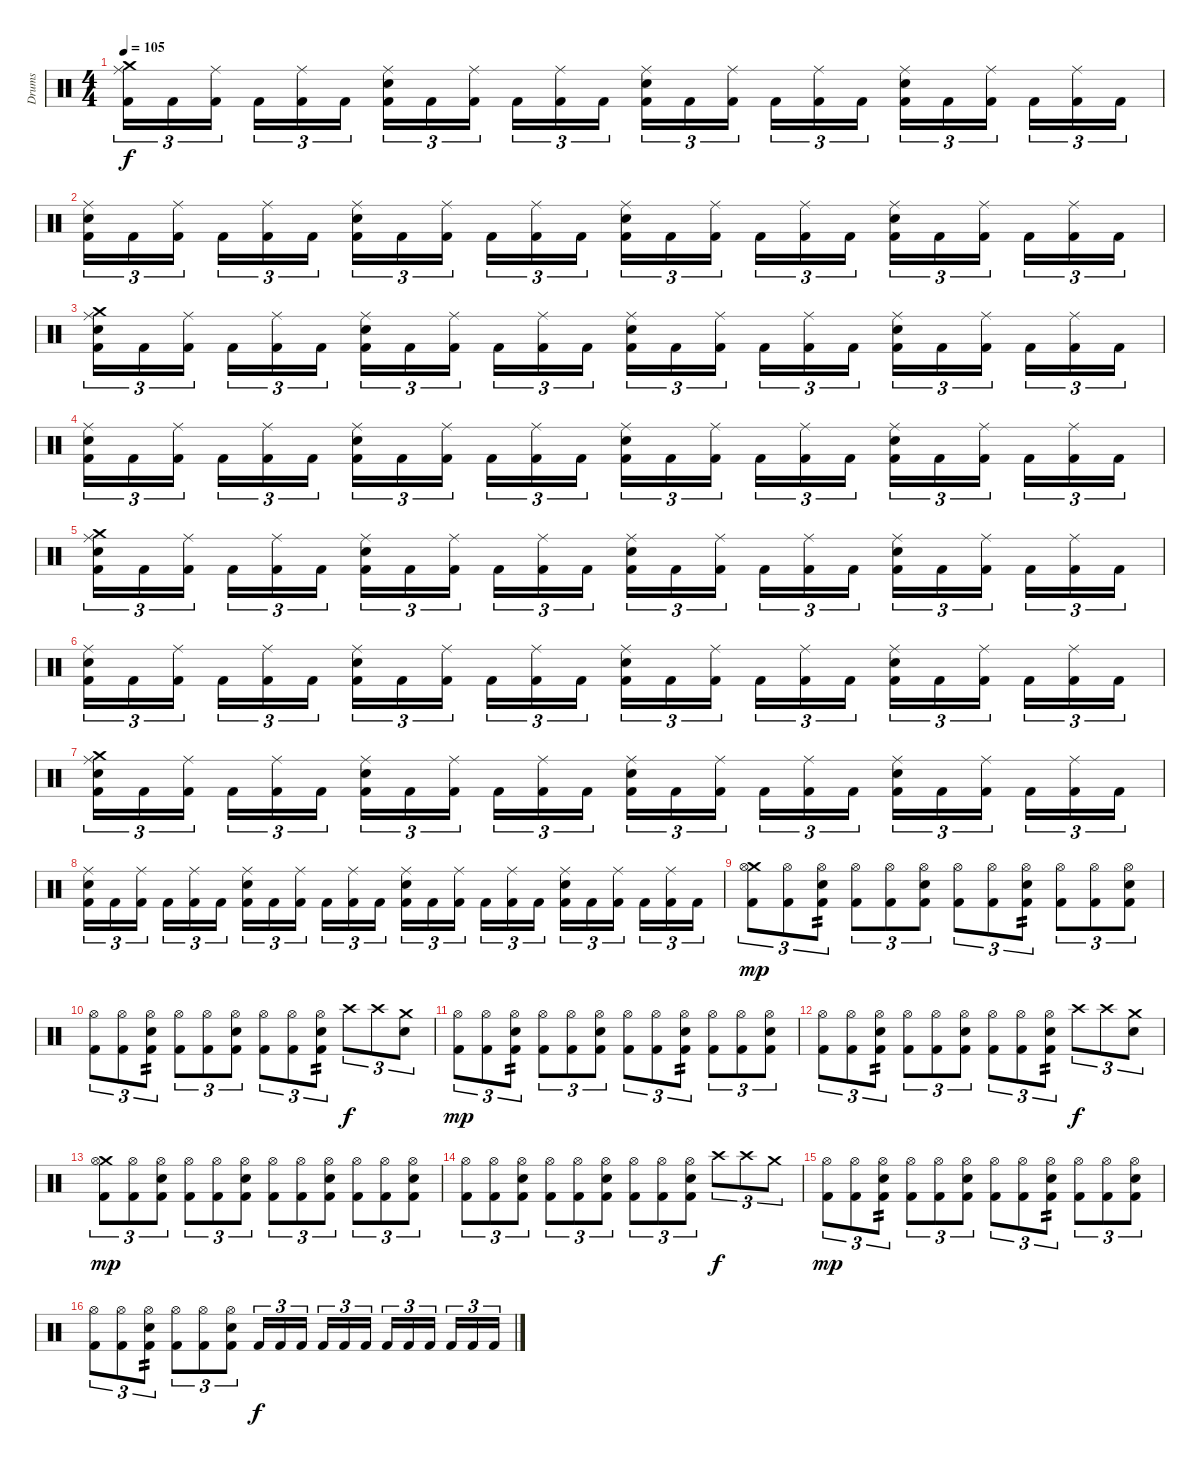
\track ("Drums" "Drums") {instrument percussion}
\staff {score}
\articulation defaults
\ts (4 4)
\tempo 105
\clef neutral
\ks c
("Crash medium (hit)" "Ride (middle)" "Kick (hit) 2").16{tu (3 2) dy f} "Kick (hit) 2".16{tu (3 2)} ("Ride (middle)" "Kick (hit) 2").16{tu (3 2)} "Kick (hit) 2".16{tu (3 2)} ("Ride (middle)" "Kick (hit) 2").16{tu (3 2)} "Kick (hit) 2".16{tu (3 2)} ("Ride (middle)" "Electric Snare (hit)" "Kick (hit) 2").16{tu (3 2)} "Kick (hit) 2".16{tu (3 2)} ("Ride (middle)" "Kick (hit) 2").16{tu (3 2)} "Kick (hit) 2".16{tu (3 2)} ("Ride (middle)" "Kick (hit) 2").16{tu (3 2)} "Kick (hit) 2".16{tu (3 2)} ("Ride (middle)" "Electric Snare (hit)" "Kick (hit) 2").16{tu (3 2)} "Kick (hit) 2".16{tu (3 2)} ("Ride (middle)" "Kick (hit) 2").16{tu (3 2)} "Kick (hit) 2".16{tu (3 2)} ("Ride (middle)" "Kick (hit) 2").16{tu (3 2)} "Kick (hit) 2".16{tu (3 2)} ("Ride (middle)" "Electric Snare (hit)" "Kick (hit) 2").16{tu (3 2)} "Kick (hit) 2".16{tu (3 2)} ("Ride (middle)" "Kick (hit) 2").16{tu (3 2)} "Kick (hit) 2".16{tu (3 2)} ("Ride (middle)" "Kick (hit) 2").16{tu (3 2)} "Kick (hit) 2".16{tu (3 2)} |
("Ride (middle)" "Electric Snare (hit)" "Kick (hit) 2").16{tu (3 2)} "Kick (hit) 2".16{tu (3 2)} ("Ride (middle)" "Kick (hit) 2").16{tu (3 2)} "Kick (hit) 2".16{tu (3 2)} ("Ride (middle)" "Kick (hit) 2").16{tu (3 2)} "Kick (hit) 2".16{tu (3 2)} ("Ride (middle)" "Electric Snare (hit)" "Kick (hit) 2").16{tu (3 2)} "Kick (hit) 2".16{tu (3 2)} ("Ride (middle)" "Kick (hit) 2").16{tu (3 2)} "Kick (hit) 2".16{tu (3 2)} ("Ride (middle)" "Kick (hit) 2").16{tu (3 2)} "Kick (hit) 2".16{tu (3 2)} ("Ride (middle)" "Electric Snare (hit)" "Kick (hit) 2").16{tu (3 2)} "Kick (hit) 2".16{tu (3 2)} ("Ride (middle)" "Kick (hit) 2").16{tu (3 2)} "Kick (hit) 2".16{tu (3 2)} ("Ride (middle)" "Kick (hit) 2").16{tu (3 2)} "Kick (hit) 2".16{tu (3 2)} ("Ride (middle)" "Electric Snare (hit)" "Kick (hit) 2").16{tu (3 2)} "Kick (hit) 2".16{tu (3 2)} ("Ride (middle)" "Kick (hit) 2").16{tu (3 2)} "Kick (hit) 2".16{tu (3 2)} ("Ride (middle)" "Kick (hit) 2").16{tu (3 2)} "Kick (hit) 2".16{tu (3 2)} |
("Crash medium (hit)" "Ride (middle)" "Electric Snare (hit)" "Kick (hit) 2").16{tu (3 2)} "Kick (hit) 2".16{tu (3 2)} ("Ride (middle)" "Kick (hit) 2").16{tu (3 2)} "Kick (hit) 2".16{tu (3 2)} ("Ride (middle)" "Kick (hit) 2").16{tu (3 2)} "Kick (hit) 2".16{tu (3 2)} ("Ride (middle)" "Electric Snare (hit)" "Kick (hit) 2").16{tu (3 2)} "Kick (hit) 2".16{tu (3 2)} ("Ride (middle)" "Kick (hit) 2").16{tu (3 2)} "Kick (hit) 2".16{tu (3 2)} ("Ride (middle)" "Kick (hit) 2").16{tu (3 2)} "Kick (hit) 2".16{tu (3 2)} ("Ride (middle)" "Electric Snare (hit)" "Kick (hit) 2").16{tu (3 2)} "Kick (hit) 2".16{tu (3 2)} ("Ride (middle)" "Kick (hit) 2").16{tu (3 2)} "Kick (hit) 2".16{tu (3 2)} ("Ride (middle)" "Kick (hit) 2").16{tu (3 2)} "Kick (hit) 2".16{tu (3 2)} ("Ride (middle)" "Electric Snare (hit)" "Kick (hit) 2").16{tu (3 2)} "Kick (hit) 2".16{tu (3 2)} ("Ride (middle)" "Kick (hit) 2").16{tu (3 2)} "Kick (hit) 2".16{tu (3 2)} ("Ride (middle)" "Kick (hit) 2").16{tu (3 2)} "Kick (hit) 2".16{tu (3 2)} |
("Ride (middle)" "Electric Snare (hit)" "Kick (hit) 2").16{tu (3 2)} "Kick (hit) 2".16{tu (3 2)} ("Ride (middle)" "Kick (hit) 2").16{tu (3 2)} "Kick (hit) 2".16{tu (3 2)} ("Ride (middle)" "Kick (hit) 2").16{tu (3 2)} "Kick (hit) 2".16{tu (3 2)} ("Ride (middle)" "Electric Snare (hit)" "Kick (hit) 2").16{tu (3 2)} "Kick (hit) 2".16{tu (3 2)} ("Ride (middle)" "Kick (hit) 2").16{tu (3 2)} "Kick (hit) 2".16{tu (3 2)} ("Ride (middle)" "Kick (hit) 2").16{tu (3 2)} "Kick (hit) 2".16{tu (3 2)} ("Ride (middle)" "Electric Snare (hit)" "Kick (hit) 2").16{tu (3 2)} "Kick (hit) 2".16{tu (3 2)} ("Ride (middle)" "Kick (hit) 2").16{tu (3 2)} "Kick (hit) 2".16{tu (3 2)} ("Ride (middle)" "Kick (hit) 2").16{tu (3 2)} "Kick (hit) 2".16{tu (3 2)} ("Ride (middle)" "Electric Snare (hit)" "Kick (hit) 2").16{tu (3 2)} "Kick (hit) 2".16{tu (3 2)} ("Ride (middle)" "Kick (hit) 2").16{tu (3 2)} "Kick (hit) 2".16{tu (3 2)} ("Ride (middle)" "Kick (hit) 2").16{tu (3 2)} "Kick (hit) 2".16{tu (3 2)} |
("Crash medium (hit)" "Ride (middle)" "Electric Snare (hit)" "Kick (hit) 2").16{tu (3 2)} "Kick (hit) 2".16{tu (3 2)} ("Ride (middle)" "Kick (hit) 2").16{tu (3 2)} "Kick (hit) 2".16{tu (3 2)} ("Ride (middle)" "Kick (hit) 2").16{tu (3 2)} "Kick (hit) 2".16{tu (3 2)} ("Ride (middle)" "Electric Snare (hit)" "Kick (hit) 2").16{tu (3 2)} "Kick (hit) 2".16{tu (3 2)} ("Ride (middle)" "Kick (hit) 2").16{tu (3 2)} "Kick (hit) 2".16{tu (3 2)} ("Ride (middle)" "Kick (hit) 2").16{tu (3 2)} "Kick (hit) 2".16{tu (3 2)} ("Ride (middle)" "Electric Snare (hit)" "Kick (hit) 2").16{tu (3 2)} "Kick (hit) 2".16{tu (3 2)} ("Ride (middle)" "Kick (hit) 2").16{tu (3 2)} "Kick (hit) 2".16{tu (3 2)} ("Ride (middle)" "Kick (hit) 2").16{tu (3 2)} "Kick (hit) 2".16{tu (3 2)} ("Ride (middle)" "Electric Snare (hit)" "Kick (hit) 2").16{tu (3 2)} "Kick (hit) 2".16{tu (3 2)} ("Ride (middle)" "Kick (hit) 2").16{tu (3 2)} "Kick (hit) 2".16{tu (3 2)} ("Ride (middle)" "Kick (hit) 2").16{tu (3 2)} "Kick (hit) 2".16{tu (3 2)} |
("Ride (middle)" "Electric Snare (hit)" "Kick (hit) 2").16{tu (3 2)} "Kick (hit) 2".16{tu (3 2)} ("Ride (middle)" "Kick (hit) 2").16{tu (3 2)} "Kick (hit) 2".16{tu (3 2)} ("Ride (middle)" "Kick (hit) 2").16{tu (3 2)} "Kick (hit) 2".16{tu (3 2)} ("Ride (middle)" "Electric Snare (hit)" "Kick (hit) 2").16{tu (3 2)} "Kick (hit) 2".16{tu (3 2)} ("Ride (middle)" "Kick (hit) 2").16{tu (3 2)} "Kick (hit) 2".16{tu (3 2)} ("Ride (middle)" "Kick (hit) 2").16{tu (3 2)} "Kick (hit) 2".16{tu (3 2)} ("Ride (middle)" "Electric Snare (hit)" "Kick (hit) 2").16{tu (3 2)} "Kick (hit) 2".16{tu (3 2)} ("Ride (middle)" "Kick (hit) 2").16{tu (3 2)} "Kick (hit) 2".16{tu (3 2)} ("Ride (middle)" "Kick (hit) 2").16{tu (3 2)} "Kick (hit) 2".16{tu (3 2)} ("Ride (middle)" "Electric Snare (hit)" "Kick (hit) 2").16{tu (3 2)} "Kick (hit) 2".16{tu (3 2)} ("Ride (middle)" "Kick (hit) 2").16{tu (3 2)} "Kick (hit) 2".16{tu (3 2)} ("Ride (middle)" "Kick (hit) 2").16{tu (3 2)} "Kick (hit) 2".16{tu (3 2)} |
("Crash medium (hit)" "Ride (middle)" "Electric Snare (hit)" "Kick (hit) 2").16{tu (3 2)} "Kick (hit) 2".16{tu (3 2)} ("Ride (middle)" "Kick (hit) 2").16{tu (3 2)} "Kick (hit) 2".16{tu (3 2)} ("Ride (middle)" "Kick (hit) 2").16{tu (3 2)} "Kick (hit) 2".16{tu (3 2)} ("Ride (middle)" "Electric Snare (hit)" "Kick (hit) 2").16{tu (3 2)} "Kick (hit) 2".16{tu (3 2)} ("Ride (middle)" "Kick (hit) 2").16{tu (3 2)} "Kick (hit) 2".16{tu (3 2)} ("Ride (middle)" "Kick (hit) 2").16{tu (3 2)} "Kick (hit) 2".16{tu (3 2)} ("Ride (middle)" "Electric Snare (hit)" "Kick (hit) 2").16{tu (3 2)} "Kick (hit) 2".16{tu (3 2)} ("Ride (middle)" "Kick (hit) 2").16{tu (3 2)} "Kick (hit) 2".16{tu (3 2)} ("Ride (middle)" "Kick (hit) 2").16{tu (3 2)} "Kick (hit) 2".16{tu (3 2)} ("Ride (middle)" "Electric Snare (hit)" "Kick (hit) 2").16{tu (3 2)} "Kick (hit) 2".16{tu (3 2)} ("Ride (middle)" "Kick (hit) 2").16{tu (3 2)} "Kick (hit) 2".16{tu (3 2)} ("Ride (middle)" "Kick (hit) 2").16{tu (3 2)} "Kick (hit) 2".16{tu (3 2)} |
("Ride (middle)" "Electric Snare (hit)" "Kick (hit) 2").16{tu (3 2)} "Kick (hit) 2".16{tu (3 2)} ("Ride (middle)" "Kick (hit) 2").16{tu (3 2)} "Kick (hit) 2".16{tu (3 2)} ("Ride (middle)" "Kick (hit) 2").16{tu (3 2)} "Kick (hit) 2".16{tu (3 2)} ("Ride (middle)" "Electric Snare (hit)" "Kick (hit) 2").16{tu (3 2)} "Kick (hit) 2".16{tu (3 2)} ("Ride (middle)" "Kick (hit) 2").16{tu (3 2)} "Kick (hit) 2".16{tu (3 2)} ("Ride (middle)" "Kick (hit) 2").16{tu (3 2)} "Kick (hit) 2".16{tu (3 2)} ("Ride (middle)" "Electric Snare (hit)" "Kick (hit) 2").16{tu (3 2)} "Kick (hit) 2".16{tu (3 2)} ("Ride (middle)" "Kick (hit) 2").16{tu (3 2)} "Kick (hit) 2".16{tu (3 2)} ("Ride (middle)" "Kick (hit) 2").16{tu (3 2)} "Kick (hit) 2".16{tu (3 2)} ("Ride (middle)" "Electric Snare (hit)" "Kick (hit) 2").16{tu (3 2)} "Kick (hit) 2".16{tu (3 2)} ("Ride (middle)" "Kick (hit) 2").16{tu (3 2)} "Kick (hit) 2".16{tu (3 2)} ("Ride (middle)" "Kick (hit) 2").16{tu (3 2)} "Kick (hit) 2".16{tu (3 2)} |
("Crash medium (hit)" "Hi-Hat (open)" "Kick (hit) 2").8{tu (3 2) dy mp} ("Hi-Hat (open)" "Kick (hit) 2").8{tu (3 2)} ("Hi-Hat (open)" "Electric Snare (hit)" "Kick (hit) 2").8{tu (3 2) tp 2} ("Hi-Hat (open)" "Kick (hit) 2").8{tu (3 2)} ("Hi-Hat (open)" "Kick (hit) 2").8{tu (3 2)} ("Hi-Hat (open)" "Electric Snare (hit)" "Kick (hit) 2").8{tu (3 2)} ("Hi-Hat (open)" "Kick (hit) 2").8{tu (3 2)} ("Hi-Hat (open)" "Kick (hit) 2").8{tu (3 2)} ("Hi-Hat (open)" "Electric Snare (hit)" "Kick (hit) 2").8{tu (3 2) tp 2} ("Hi-Hat (open)" "Kick (hit) 2").8{tu (3 2)} ("Hi-Hat (open)" "Kick (hit) 2").8{tu (3 2)} ("Hi-Hat (open)" "Electric Snare (hit)" "Kick (hit) 2").8{tu (3 2)} |
("Hi-Hat (open)" "Kick (hit) 2").8{tu (3 2)} ("Hi-Hat (open)" "Kick (hit) 2").8{tu (3 2)} ("Hi-Hat (open)" "Electric Snare (hit)" "Kick (hit) 2").8{tu (3 2) tp 2} ("Hi-Hat (open)" "Kick (hit) 2").8{tu (3 2)} ("Hi-Hat (open)" "Kick (hit) 2").8{tu (3 2)} ("Hi-Hat (open)" "Electric Snare (hit)" "Kick (hit) 2").8{tu (3 2)} ("Hi-Hat (open)" "Kick (hit) 2").8{tu (3 2)} ("Hi-Hat (open)" "Kick (hit) 2").8{tu (3 2)} ("Hi-Hat (open)" "Electric Snare (hit)" "Kick (hit) 2").8{tu (3 2) tp 2} "Crash high (hit)".8{tu (3 2) dy f} "Crash high (hit)".8{tu (3 2)} ("Crash medium (hit)" "Electric Snare (hit)").8{tu (3 2)} |
("Hi-Hat (open)" "Kick (hit) 2").8{tu (3 2) dy mp} ("Hi-Hat (open)" "Kick (hit) 2").8{tu (3 2)} ("Hi-Hat (open)" "Electric Snare (hit)" "Kick (hit) 2").8{tu (3 2) tp 2} ("Hi-Hat (open)" "Kick (hit) 2").8{tu (3 2)} ("Hi-Hat (open)" "Kick (hit) 2").8{tu (3 2)} ("Hi-Hat (open)" "Electric Snare (hit)" "Kick (hit) 2").8{tu (3 2)} ("Hi-Hat (open)" "Kick (hit) 2").8{tu (3 2)} ("Hi-Hat (open)" "Kick (hit) 2").8{tu (3 2)} ("Hi-Hat (open)" "Electric Snare (hit)" "Kick (hit) 2").8{tu (3 2) tp 2} ("Hi-Hat (open)" "Kick (hit) 2").8{tu (3 2)} ("Hi-Hat (open)" "Kick (hit) 2").8{tu (3 2)} ("Hi-Hat (open)" "Electric Snare (hit)" "Kick (hit) 2").8{tu (3 2)} |
("Hi-Hat (open)" "Kick (hit) 2").8{tu (3 2)} ("Hi-Hat (open)" "Kick (hit) 2").8{tu (3 2)} ("Hi-Hat (open)" "Electric Snare (hit)" "Kick (hit) 2").8{tu (3 2) tp 2} ("Hi-Hat (open)" "Kick (hit) 2").8{tu (3 2)} ("Hi-Hat (open)" "Kick (hit) 2").8{tu (3 2)} ("Hi-Hat (open)" "Electric Snare (hit)" "Kick (hit) 2").8{tu (3 2)} ("Hi-Hat (open)" "Kick (hit) 2").8{tu (3 2)} ("Hi-Hat (open)" "Kick (hit) 2").8{tu (3 2)} ("Hi-Hat (open)" "Electric Snare (hit)" "Kick (hit) 2").8{tu (3 2) tp 2} "Crash high (hit)".8{tu (3 2) dy f} "Crash high (hit)".8{tu (3 2)} ("Crash medium (hit)" "Electric Snare (hit)").8{tu (3 2)} |
("Crash medium (hit)" "Hi-Hat (open)" "Kick (hit) 2").8{tu (3 2) dy mp} ("Hi-Hat (open)" "Kick (hit) 2").8{tu (3 2)} ("Hi-Hat (open)" "Electric Snare (hit)" "Kick (hit) 2").8{tu (3 2)} ("Hi-Hat (open)" "Kick (hit) 2").8{tu (3 2)} ("Hi-Hat (open)" "Kick (hit) 2").8{tu (3 2)} ("Hi-Hat (open)" "Electric Snare (hit)" "Kick (hit) 2").8{tu (3 2)} ("Hi-Hat (open)" "Kick (hit) 2").8{tu (3 2)} ("Hi-Hat (open)" "Kick (hit) 2").8{tu (3 2)} ("Hi-Hat (open)" "Electric Snare (hit)" "Kick (hit) 2").8{tu (3 2)} ("Hi-Hat (open)" "Kick (hit) 2").8{tu (3 2)} ("Hi-Hat (open)" "Kick (hit) 2").8{tu (3 2)} ("Hi-Hat (open)" "Electric Snare (hit)" "Kick (hit) 2").8{tu (3 2)} |
("Hi-Hat (open)" "Kick (hit) 2").8{tu (3 2)} ("Hi-Hat (open)" "Kick (hit) 2").8{tu (3 2)} ("Hi-Hat (open)" "Electric Snare (hit)" "Kick (hit) 2").8{tu (3 2)} ("Hi-Hat (open)" "Kick (hit) 2").8{tu (3 2)} ("Hi-Hat (open)" "Kick (hit) 2").8{tu (3 2)} ("Hi-Hat (open)" "Electric Snare (hit)" "Kick (hit) 2").8{tu (3 2)} ("Hi-Hat (open)" "Kick (hit) 2").8{tu (3 2)} ("Hi-Hat (open)" "Kick (hit) 2").8{tu (3 2)} ("Hi-Hat (open)" "Electric Snare (hit)" "Kick (hit) 2").8{tu (3 2)} "Crash high (hit)".8{tu (3 2) dy f} "Crash high (hit)".8{tu (3 2)} "Crash medium (hit)".8{tu (3 2)} |
("Hi-Hat (open)" "Kick (hit) 2").8{tu (3 2) dy mp} ("Hi-Hat (open)" "Kick (hit) 2").8{tu (3 2)} ("Hi-Hat (open)" "Electric Snare (hit)" "Kick (hit) 2").8{tu (3 2) tp 2} ("Hi-Hat (open)" "Kick (hit) 2").8{tu (3 2)} ("Hi-Hat (open)" "Kick (hit) 2").8{tu (3 2)} ("Hi-Hat (open)" "Electric Snare (hit)" "Kick (hit) 2").8{tu (3 2)} ("Hi-Hat (open)" "Kick (hit) 2").8{tu (3 2)} ("Hi-Hat (open)" "Kick (hit) 2").8{tu (3 2)} ("Hi-Hat (open)" "Electric Snare (hit)" "Kick (hit) 2").8{tu (3 2) tp 2} ("Hi-Hat (open)" "Kick (hit) 2").8{tu (3 2)} ("Hi-Hat (open)" "Kick (hit) 2").8{tu (3 2)} ("Hi-Hat (open)" "Electric Snare (hit)" "Kick (hit) 2").8{tu (3 2)} |
("Hi-Hat (open)" "Kick (hit) 2").8{tu (3 2)} ("Hi-Hat (open)" "Kick (hit) 2").8{tu (3 2)} ("Hi-Hat (open)" "Electric Snare (hit)" "Kick (hit) 2").8{tu (3 2) tp 2} ("Hi-Hat (open)" "Kick (hit) 2").8{tu (3 2)} ("Hi-Hat (open)" "Kick (hit) 2").8{tu (3 2)} ("Hi-Hat (open)" "Electric Snare (hit)" "Kick (hit) 2").8{tu (3 2)} "Kick (hit) 2".16{tu (3 2) dy f} "Kick (hit) 2".16{tu (3 2)} "Kick (hit) 2".16{tu (3 2)} "Kick (hit) 2".16{tu (3 2)} "Kick (hit) 2".16{tu (3 2)} "Kick (hit) 2".16{tu (3 2)} "Kick (hit) 2".16{tu (3 2)} "Kick (hit) 2".16{tu (3 2)} "Kick (hit) 2".16{tu (3 2)} "Kick (hit) 2".16{tu (3 2)} "Kick (hit) 2".16{tu (3 2)} "Kick (hit) 2".16{tu (3 2)}
